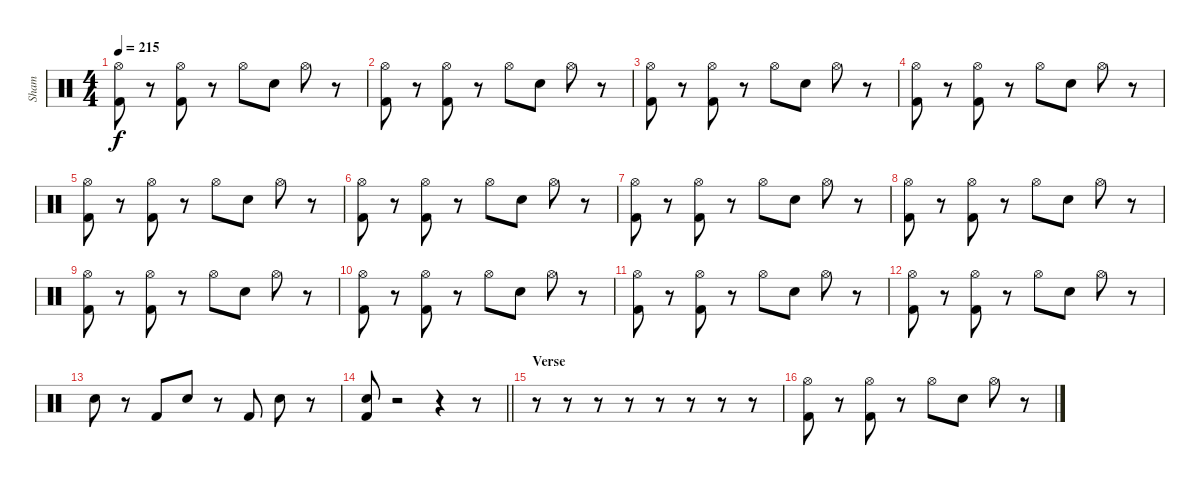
\track ("Sham" "Sham") {instrument percussion}
\staff {score}
\articulation defaults
\ts (4 4)
\tempo 215
\clef neutral
\ks c
("Kick (hit) 2" "Hi-Hat (open)").8{dy f} r.8 ("Kick (hit) 2" "Hi-Hat (open)").8 r.8 "Hi-Hat (open)".8 "Electric Snare (hit)".8 "Hi-Hat (open)".8 r.8 |
("Kick (hit) 2" "Hi-Hat (open)").8 r.8 ("Kick (hit) 2" "Hi-Hat (open)").8 r.8 "Hi-Hat (open)".8 "Electric Snare (hit)".8 "Hi-Hat (open)".8 r.8 |
("Kick (hit) 2" "Hi-Hat (open)").8 r.8 ("Kick (hit) 2" "Hi-Hat (open)").8 r.8 "Hi-Hat (open)".8 "Electric Snare (hit)".8 "Hi-Hat (open)".8 r.8 |
("Kick (hit) 2" "Hi-Hat (open)").8 r.8 ("Kick (hit) 2" "Hi-Hat (open)").8 r.8 "Hi-Hat (open)".8 "Electric Snare (hit)".8 "Hi-Hat (open)".8 r.8 |
("Kick (hit) 2" "Hi-Hat (open)").8 r.8 ("Kick (hit) 2" "Hi-Hat (open)").8 r.8 "Hi-Hat (open)".8 "Electric Snare (hit)".8 "Hi-Hat (open)".8 r.8 |
("Kick (hit) 2" "Hi-Hat (open)").8 r.8 ("Kick (hit) 2" "Hi-Hat (open)").8 r.8 "Hi-Hat (open)".8 "Electric Snare (hit)".8 "Hi-Hat (open)".8 r.8 |
("Kick (hit) 2" "Hi-Hat (open)").8 r.8 ("Kick (hit) 2" "Hi-Hat (open)").8 r.8 "Hi-Hat (open)".8 "Electric Snare (hit)".8 "Hi-Hat (open)".8 r.8 |
("Kick (hit) 2" "Hi-Hat (open)").8 r.8 ("Kick (hit) 2" "Hi-Hat (open)").8 r.8 "Hi-Hat (open)".8 "Electric Snare (hit)".8 "Hi-Hat (open)".8 r.8 |
("Kick (hit) 2" "Hi-Hat (open)").8 r.8 ("Kick (hit) 2" "Hi-Hat (open)").8 r.8 "Hi-Hat (open)".8 "Electric Snare (hit)".8 "Hi-Hat (open)".8 r.8 |
("Kick (hit) 2" "Hi-Hat (open)").8 r.8 ("Kick (hit) 2" "Hi-Hat (open)").8 r.8 "Hi-Hat (open)".8 "Electric Snare (hit)".8 "Hi-Hat (open)".8 r.8 |
("Kick (hit) 2" "Hi-Hat (open)").8 r.8 ("Kick (hit) 2" "Hi-Hat (open)").8 r.8 "Hi-Hat (open)".8 "Electric Snare (hit)".8 "Hi-Hat (open)".8 r.8 |
("Kick (hit) 2" "Hi-Hat (open)").8 r.8 ("Kick (hit) 2" "Hi-Hat (open)").8 r.8 "Hi-Hat (open)".8 "Electric Snare (hit)".8 "Hi-Hat (open)".8 r.8 |
"Electric Snare (hit)".8 r.8 "Kick (hit) 2".8 "Electric Snare (hit)".8 r.8 "Kick (hit) 2".8 "Electric Snare (hit)".8 r.8 |
\barLineRight lightlight
("Kick (hit) 2" "Electric Snare (hit)").8 r.2 r.4 r.8 |
\section ("" "Verse")
r.8 r.8 r.8 r.8 r.8 r.8 r.8 r.8 |
("Kick (hit) 2" "Hi-Hat (open)").8 r.8 ("Kick (hit) 2" "Hi-Hat (open)").8 r.8 "Hi-Hat (open)".8 "Electric Snare (hit)".8 "Hi-Hat (open)".8 r.8
